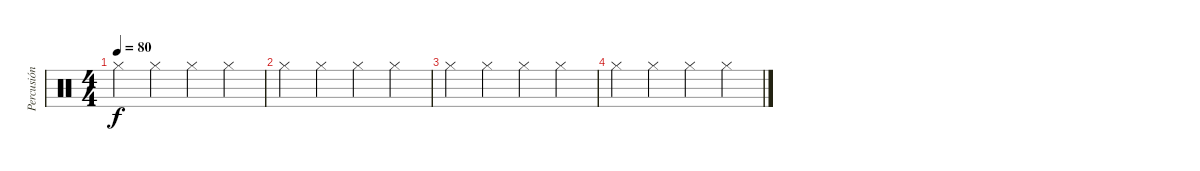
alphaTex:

\track ("Percusión" "Percusión") {instrument percussion}
\staff {score}
\articulation defaults
\ts (4 4)
\tempo 80
\clef neutral
\ks c "Hi-Hat (closed)".4{dy f} "Hi-Hat (closed)".4 "Hi-Hat (closed)".4 "Hi-Hat (closed)".4
|
"Hi-Hat (closed)".4 "Hi-Hat (closed)".4 "Hi-Hat (closed)".4 "Hi-Hat (closed)".4 |
"Hi-Hat (closed)".4 "Hi-Hat (closed)".4 "Hi-Hat (closed)".4 "Hi-Hat (closed)".4 |
"Hi-Hat (closed)".4 "Hi-Hat (closed)".4 "Hi-Hat (closed)".4 "Hi-Hat (closed)".4
